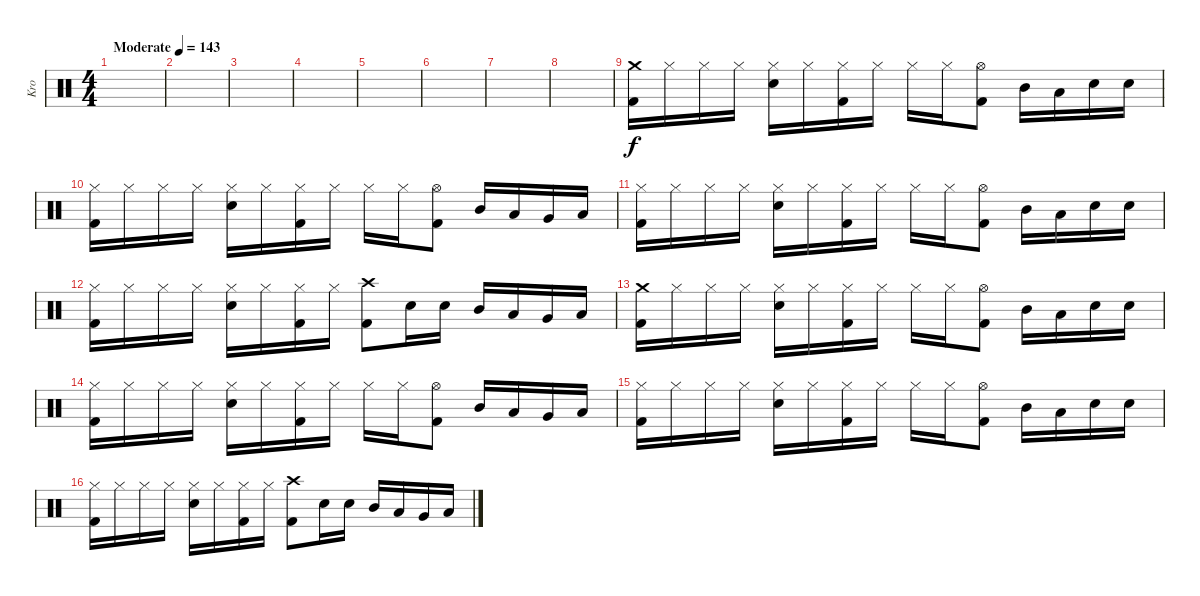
\track ("Kro" "Kro") {instrument percussion}
\staff {score}
\articulation defaults
\ts (4 4)
\tempo (143 "Moderate")
\clef neutral
\ks c
|
|
|
|
|
|
|
|
("Crash medium (hit)" "Kick (hit) 2").16 "Hi-Hat (closed)".16 "Hi-Hat (closed)".16 "Hi-Hat (closed)".16 ("Hi-Hat (closed)" "Electric Snare (hit)").16 "Hi-Hat (closed)".16 ("Hi-Hat (closed)" "Kick (hit) 2").16 "Hi-Hat (closed)".16 "Hi-Hat (closed)".16 "Hi-Hat (closed)".16 ("Hi-Hat (open)" "Kick (hit) 2").8 "Mid Tom (hit)".16 "Low Tom (hit)".16 "Electric Snare (hit)".16 "Electric Snare (hit)".16 |
("Hi-Hat (closed)" "Kick (hit) 2").16 "Hi-Hat (closed)".16 "Hi-Hat (closed)".16 "Hi-Hat (closed)".16 ("Hi-Hat (closed)" "Electric Snare (hit)").16 "Hi-Hat (closed)".16 ("Hi-Hat (closed)" "Kick (hit) 2").16 "Hi-Hat (closed)".16 "Hi-Hat (closed)".16 "Hi-Hat (closed)".16 ("Hi-Hat (open)" "Kick (hit) 2").8 "Mid Tom (hit)".16 "Low Tom (hit)".16 "Very Low Tom (hit)".16 "Low Floor Tom (hit)".16 |
("Hi-Hat (closed)" "Kick (hit) 2").16 "Hi-Hat (closed)".16 "Hi-Hat (closed)".16 "Hi-Hat (closed)".16 ("Hi-Hat (closed)" "Electric Snare (hit)").16 "Hi-Hat (closed)".16 ("Hi-Hat (closed)" "Kick (hit) 2").16 "Hi-Hat (closed)".16 "Hi-Hat (closed)".16 "Hi-Hat (closed)".16 ("Hi-Hat (open)" "Kick (hit) 2").8 "Mid Tom (hit)".16 "Low Tom (hit)".16 "Electric Snare (hit)".16 "Electric Snare (hit)".16 |
("Hi-Hat (closed)" "Kick (hit) 2").16 "Hi-Hat (closed)".16 "Hi-Hat (closed)".16 "Hi-Hat (closed)".16 ("Hi-Hat (closed)" "Electric Snare (hit)").16 "Hi-Hat (closed)".16 ("Hi-Hat (closed)" "Kick (hit) 2").16 "Hi-Hat (closed)".16 ("Crash high (hit)" "Kick (hit) 2").8 "Electric Snare (hit)".16 "Electric Snare (hit)".16 "Mid Tom (hit)".16 "Low Tom (hit)".16 "Very Low Tom (hit)".16 "Low Floor Tom (hit)".16 |
("Crash medium (hit)" "Kick (hit) 2").16 "Hi-Hat (closed)".16 "Hi-Hat (closed)".16 "Hi-Hat (closed)".16 ("Hi-Hat (closed)" "Electric Snare (hit)").16 "Hi-Hat (closed)".16 ("Hi-Hat (closed)" "Kick (hit) 2").16 "Hi-Hat (closed)".16 "Hi-Hat (closed)".16 "Hi-Hat (closed)".16 ("Hi-Hat (open)" "Kick (hit) 2").8 "Mid Tom (hit)".16 "Low Tom (hit)".16 "Electric Snare (hit)".16 "Electric Snare (hit)".16 |
("Hi-Hat (closed)" "Kick (hit) 2").16 "Hi-Hat (closed)".16 "Hi-Hat (closed)".16 "Hi-Hat (closed)".16 ("Hi-Hat (closed)" "Electric Snare (hit)").16 "Hi-Hat (closed)".16 ("Hi-Hat (closed)" "Kick (hit) 2").16 "Hi-Hat (closed)".16 "Hi-Hat (closed)".16 "Hi-Hat (closed)".16 ("Hi-Hat (open)" "Kick (hit) 2").8 "Mid Tom (hit)".16 "Low Tom (hit)".16 "Very Low Tom (hit)".16 "Low Floor Tom (hit)".16 |
("Hi-Hat (closed)" "Kick (hit) 2").16 "Hi-Hat (closed)".16 "Hi-Hat (closed)".16 "Hi-Hat (closed)".16 ("Hi-Hat (closed)" "Electric Snare (hit)").16 "Hi-Hat (closed)".16 ("Hi-Hat (closed)" "Kick (hit) 2").16 "Hi-Hat (closed)".16 "Hi-Hat (closed)".16 "Hi-Hat (closed)".16 ("Hi-Hat (open)" "Kick (hit) 2").8 "Mid Tom (hit)".16 "Low Tom (hit)".16 "Electric Snare (hit)".16 "Electric Snare (hit)".16 |
("Hi-Hat (closed)" "Kick (hit) 2").16 "Hi-Hat (closed)".16 "Hi-Hat (closed)".16 "Hi-Hat (closed)".16 ("Hi-Hat (closed)" "Electric Snare (hit)").16 "Hi-Hat (closed)".16 ("Hi-Hat (closed)" "Kick (hit) 2").16 "Hi-Hat (closed)".16 ("Crash high (hit)" "Kick (hit) 2").8 "Electric Snare (hit)".16 "Electric Snare (hit)".16 "Mid Tom (hit)".16 "Low Tom (hit)".16 "Very Low Tom (hit)".16 "Low Floor Tom (hit)".16
